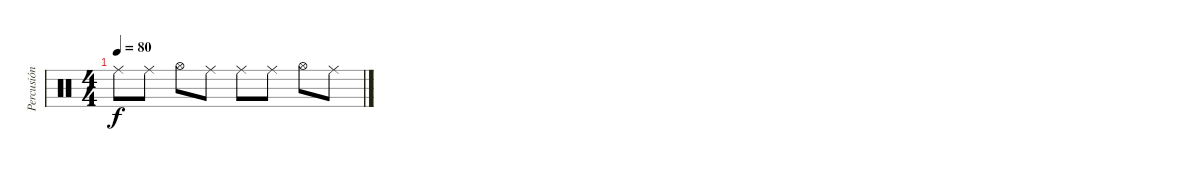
\track ("Percusión" "Percusión") {instrument percussion}
\staff {score}
\articulation defaults
\ts (4 4)
\tempo 80
\clef neutral
\ks c "Ride (middle)".8{dy f} "Ride (middle)".8 "Hi-Hat (open)".8 "Ride (middle)".8 "Ride (middle)".8 "Ride (middle)".8 "Hi-Hat (open)".8 "Ride (middle)".8
